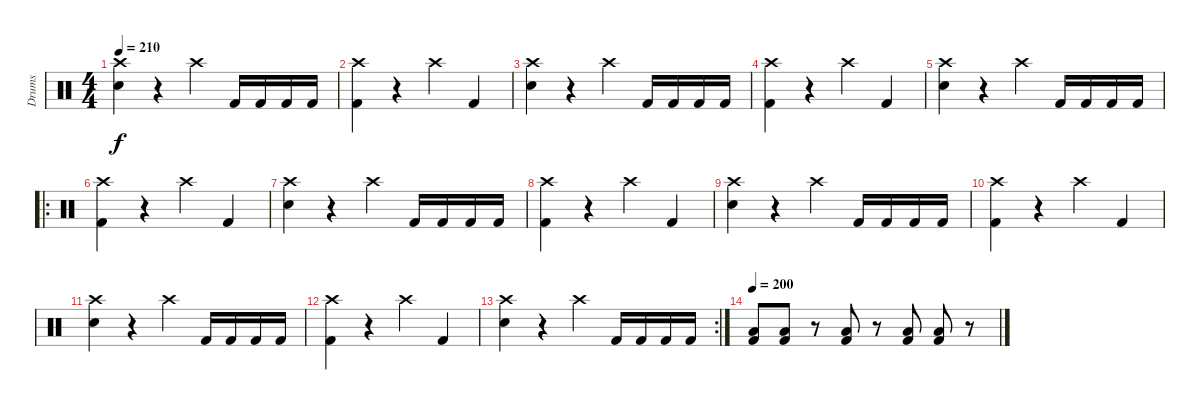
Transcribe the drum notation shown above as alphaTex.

\track ("Drums" "Drums") {instrument percussion}
\staff {score}
\articulation defaults
\ts (4 4)
\tempo 210
\clef neutral
\ks c
("Crash high (hit)" "Electric Snare (hit)").4{dy f} r.4 "Crash high (hit)".4 "Kick (hit) 2".16 "Kick (hit) 2".16 "Kick (hit) 2".16 "Kick (hit) 2".16 |
("Crash high (hit)" "Kick (hit) 2").4 r.4 "Crash high (hit)".4 "Kick (hit) 2".4 |
("Crash high (hit)" "Electric Snare (hit)").4 r.4 "Crash high (hit)".4 "Kick (hit) 2".16 "Kick (hit) 2".16 "Kick (hit) 2".16 "Kick (hit) 2".16 |
("Crash high (hit)" "Kick (hit) 2").4 r.4 "Crash high (hit)".4 "Kick (hit) 2".4 |
("Crash high (hit)" "Electric Snare (hit)").4 r.4 "Crash high (hit)".4 "Kick (hit) 2".16 "Kick (hit) 2".16 "Kick (hit) 2".16 "Kick (hit) 2".16 |
\ro
("Crash high (hit)" "Kick (hit) 2").4 r.4 "Crash high (hit)".4 "Kick (hit) 2".4 |
("Crash high (hit)" "Electric Snare (hit)").4 r.4 "Crash high (hit)".4 "Kick (hit) 2".16 "Kick (hit) 2".16 "Kick (hit) 2".16 "Kick (hit) 2".16 |
("Crash high (hit)" "Kick (hit) 2").4 r.4 "Crash high (hit)".4 "Kick (hit) 2".4 |
("Crash high (hit)" "Electric Snare (hit)").4 r.4 "Crash high (hit)".4 "Kick (hit) 2".16 "Kick (hit) 2".16 "Kick (hit) 2".16 "Kick (hit) 2".16 |
("Crash high (hit)" "Kick (hit) 2").4 r.4 "Crash high (hit)".4 "Kick (hit) 2".4 |
("Crash high (hit)" "Electric Snare (hit)").4 r.4 "Crash high (hit)".4 "Kick (hit) 2".16 "Kick (hit) 2".16 "Kick (hit) 2".16 "Kick (hit) 2".16 |
("Crash high (hit)" "Kick (hit) 2").4 r.4 "Crash high (hit)".4 "Kick (hit) 2".4 |
\rc 2
("Crash high (hit)" "Electric Snare (hit)").4 r.4 "Crash high (hit)".4 "Kick (hit) 2".16 "Kick (hit) 2".16 "Kick (hit) 2".16 "Kick (hit) 2".16 |
\tempo 200
("Low Floor Tom (hit)" "Kick (hit) 2").8 ("Low Floor Tom (hit)" "Kick (hit) 2").8 r.8 ("Low Floor Tom (hit)" "Kick (hit) 2").8 r.8 ("Low Floor Tom (hit)" "Kick (hit) 2").8 ("Low Floor Tom (hit)" "Kick (hit) 2").8 r.8
